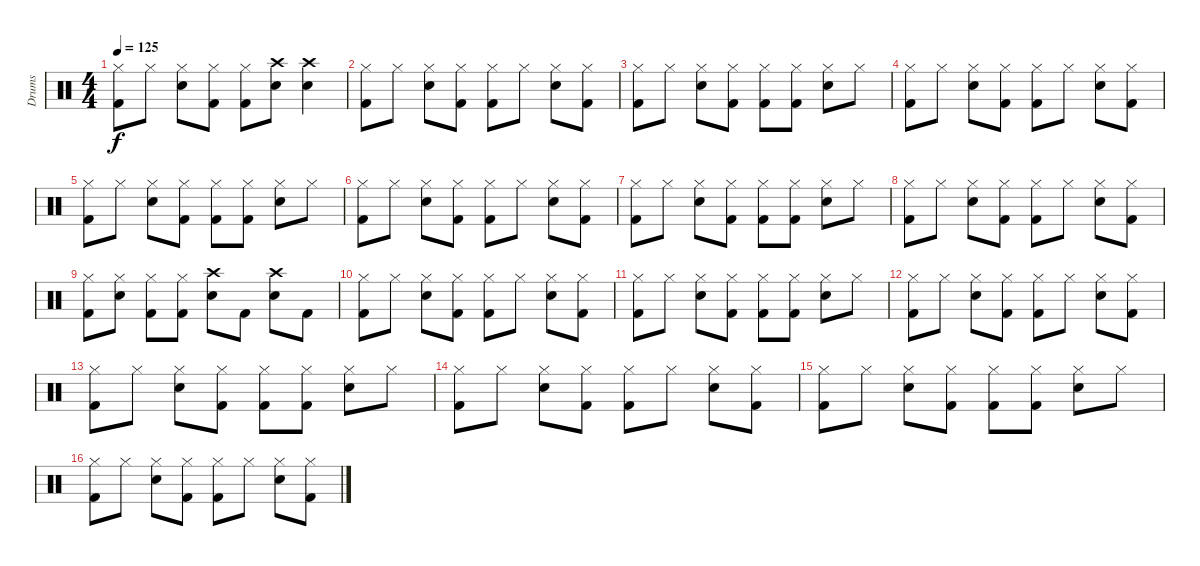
\track ("Drums" "Drums") {instrument percussion}
\staff {score}
\articulation defaults
\ts (4 4)
\tempo 125
\clef neutral
\ks c
("Hi-Hat (closed)" "Kick (hit) 2").8{dy f} "Hi-Hat (closed)".8 ("Hi-Hat (closed)" "Snare (hit) 2").8 ("Hi-Hat (closed)" "Kick (hit) 2").8 ("Hi-Hat (closed)" "Kick (hit) 2").8 ("Crash high (hit)" "Snare (hit) 2").8 ("Crash high (hit)" "Snare (hit) 2").4 |
("Hi-Hat (closed)" "Kick (hit) 2").8 "Hi-Hat (closed)".8 ("Hi-Hat (closed)" "Snare (hit) 2").8 ("Hi-Hat (closed)" "Kick (hit) 2").8 ("Hi-Hat (closed)" "Kick (hit) 2").8 "Hi-Hat (closed)".8 ("Hi-Hat (closed)" "Snare (hit) 2").8 ("Hi-Hat (closed)" "Kick (hit) 2").8 |
("Hi-Hat (closed)" "Kick (hit) 2").8 "Hi-Hat (closed)".8 ("Hi-Hat (closed)" "Snare (hit) 2").8 ("Hi-Hat (closed)" "Kick (hit) 2").8 ("Hi-Hat (closed)" "Kick (hit) 2").8 ("Hi-Hat (closed)" "Kick (hit) 2").8 ("Hi-Hat (closed)" "Snare (hit) 2").8 "Hi-Hat (closed)".8 |
("Hi-Hat (closed)" "Kick (hit) 2").8 "Hi-Hat (closed)".8 ("Hi-Hat (closed)" "Snare (hit) 2").8 ("Hi-Hat (closed)" "Kick (hit) 2").8 ("Hi-Hat (closed)" "Kick (hit) 2").8 "Hi-Hat (closed)".8 ("Hi-Hat (closed)" "Snare (hit) 2").8 ("Hi-Hat (closed)" "Kick (hit) 2").8 |
("Hi-Hat (closed)" "Kick (hit) 2").8 "Hi-Hat (closed)".8 ("Hi-Hat (closed)" "Snare (hit) 2").8 ("Hi-Hat (closed)" "Kick (hit) 2").8 ("Hi-Hat (closed)" "Kick (hit) 2").8 ("Hi-Hat (closed)" "Kick (hit) 2").8 ("Hi-Hat (closed)" "Snare (hit) 2").8 "Hi-Hat (closed)".8 |
("Hi-Hat (closed)" "Kick (hit) 2").8 "Hi-Hat (closed)".8 ("Hi-Hat (closed)" "Snare (hit) 2").8 ("Hi-Hat (closed)" "Kick (hit) 2").8 ("Hi-Hat (closed)" "Kick (hit) 2").8 "Hi-Hat (closed)".8 ("Hi-Hat (closed)" "Snare (hit) 2").8 ("Hi-Hat (closed)" "Kick (hit) 2").8 |
("Hi-Hat (closed)" "Kick (hit) 2").8 "Hi-Hat (closed)".8 ("Hi-Hat (closed)" "Snare (hit) 2").8 ("Hi-Hat (closed)" "Kick (hit) 2").8 ("Hi-Hat (closed)" "Kick (hit) 2").8 ("Hi-Hat (closed)" "Kick (hit) 2").8 ("Hi-Hat (closed)" "Snare (hit) 2").8 "Hi-Hat (closed)".8 |
("Hi-Hat (closed)" "Kick (hit) 2").8 "Hi-Hat (closed)".8 ("Hi-Hat (closed)" "Snare (hit) 2").8 ("Hi-Hat (closed)" "Kick (hit) 2").8 ("Hi-Hat (closed)" "Kick (hit) 2").8 "Hi-Hat (closed)".8 ("Hi-Hat (closed)" "Snare (hit) 2").8 ("Hi-Hat (closed)" "Kick (hit) 2").8 |
("Hi-Hat (closed)" "Kick (hit) 2").8 ("Hi-Hat (closed)" "Snare (hit) 2").8 ("Hi-Hat (closed)" "Kick (hit) 2").8 ("Hi-Hat (closed)" "Kick (hit) 2").8 ("Crash high (hit)" "Snare (hit) 2").8 "Kick (hit) 2".8 ("Crash high (hit)" "Snare (hit) 2").8 "Kick (hit) 2".8 |
("Hi-Hat (closed)" "Kick (hit) 2").8 "Hi-Hat (closed)".8 ("Hi-Hat (closed)" "Snare (hit) 2").8 ("Hi-Hat (closed)" "Kick (hit) 2").8 ("Hi-Hat (closed)" "Kick (hit) 2").8 "Hi-Hat (closed)".8 ("Hi-Hat (closed)" "Snare (hit) 2").8 ("Hi-Hat (closed)" "Kick (hit) 2").8 |
("Hi-Hat (closed)" "Kick (hit) 2").8 "Hi-Hat (closed)".8 ("Hi-Hat (closed)" "Snare (hit) 2").8 ("Hi-Hat (closed)" "Kick (hit) 2").8 ("Hi-Hat (closed)" "Kick (hit) 2").8 ("Hi-Hat (closed)" "Kick (hit) 2").8 ("Hi-Hat (closed)" "Snare (hit) 2").8 "Hi-Hat (closed)".8 |
("Hi-Hat (closed)" "Kick (hit) 2").8 "Hi-Hat (closed)".8 ("Hi-Hat (closed)" "Snare (hit) 2").8 ("Hi-Hat (closed)" "Kick (hit) 2").8 ("Hi-Hat (closed)" "Kick (hit) 2").8 "Hi-Hat (closed)".8 ("Hi-Hat (closed)" "Snare (hit) 2").8 ("Hi-Hat (closed)" "Kick (hit) 2").8 |
("Hi-Hat (closed)" "Kick (hit) 2").8 "Hi-Hat (closed)".8 ("Hi-Hat (closed)" "Snare (hit) 2").8 ("Hi-Hat (closed)" "Kick (hit) 2").8 ("Hi-Hat (closed)" "Kick (hit) 2").8 ("Hi-Hat (closed)" "Kick (hit) 2").8 ("Hi-Hat (closed)" "Snare (hit) 2").8 "Hi-Hat (closed)".8 |
("Hi-Hat (closed)" "Kick (hit) 2").8 "Hi-Hat (closed)".8 ("Hi-Hat (closed)" "Snare (hit) 2").8 ("Hi-Hat (closed)" "Kick (hit) 2").8 ("Hi-Hat (closed)" "Kick (hit) 2").8 "Hi-Hat (closed)".8 ("Hi-Hat (closed)" "Snare (hit) 2").8 ("Hi-Hat (closed)" "Kick (hit) 2").8 |
("Hi-Hat (closed)" "Kick (hit) 2").8 "Hi-Hat (closed)".8 ("Hi-Hat (closed)" "Snare (hit) 2").8 ("Hi-Hat (closed)" "Kick (hit) 2").8 ("Hi-Hat (closed)" "Kick (hit) 2").8 ("Hi-Hat (closed)" "Kick (hit) 2").8 ("Hi-Hat (closed)" "Snare (hit) 2").8 "Hi-Hat (closed)".8 |
("Hi-Hat (closed)" "Kick (hit) 2").8 "Hi-Hat (closed)".8 ("Hi-Hat (closed)" "Snare (hit) 2").8 ("Hi-Hat (closed)" "Kick (hit) 2").8 ("Hi-Hat (closed)" "Kick (hit) 2").8 "Hi-Hat (closed)".8 ("Hi-Hat (closed)" "Snare (hit) 2").8 ("Hi-Hat (closed)" "Kick (hit) 2").8
